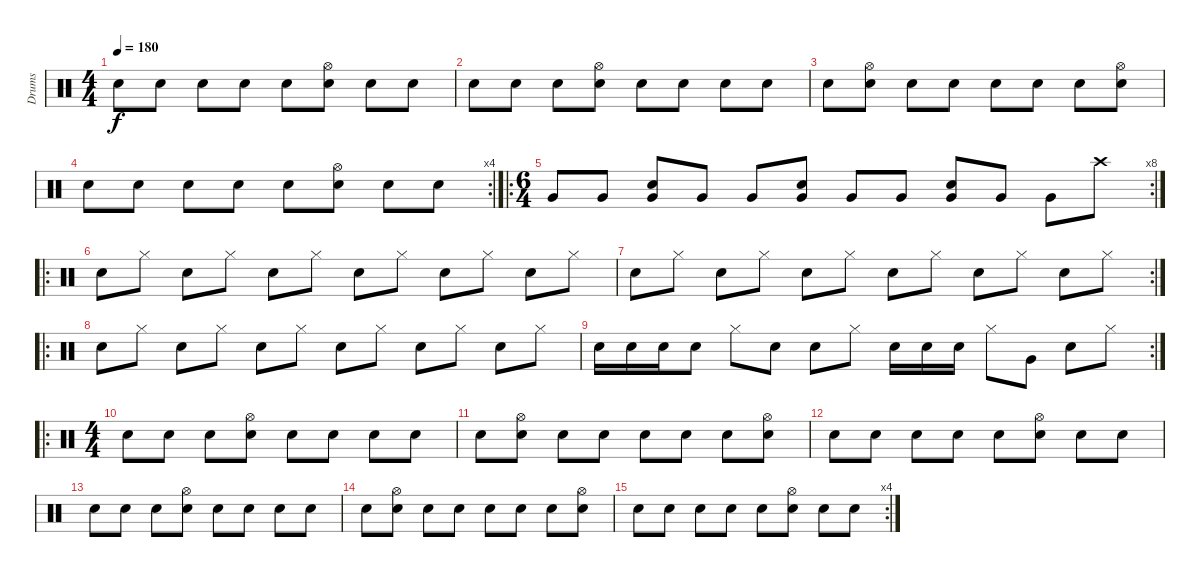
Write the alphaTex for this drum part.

\track ("Drums" "Drums") {instrument percussion}
\staff {score}
\articulation defaults
\ts (4 4)
\tempo 180
\clef neutral
\ks c "Electric Snare (hit)".8{dy f} "Electric Snare (hit)".8 "Electric Snare (hit)".8 "Electric Snare (hit)".8 "Electric Snare (hit)".8
("Hi-Hat (open)" "Electric Snare (hit)").8 "Electric Snare (hit)".8 "Electric Snare (hit)".8 |
"Electric Snare (hit)".8 "Electric Snare (hit)".8 "Electric Snare (hit)".8 ("Hi-Hat (open)" "Electric Snare (hit)").8 "Electric Snare (hit)".8 "Electric Snare (hit)".8 "Electric Snare (hit)".8 "Electric Snare (hit)".8 |
"Electric Snare (hit)".8 ("Hi-Hat (open)" "Electric Snare (hit)").8 "Electric Snare (hit)".8 "Electric Snare (hit)".8 "Electric Snare (hit)".8 "Electric Snare (hit)".8 "Electric Snare (hit)".8 ("Hi-Hat (open)" "Electric Snare (hit)").8 |
\rc 4 "Electric Snare (hit)".8 "Electric Snare (hit)".8 "Electric Snare (hit)".8 "Electric Snare (hit)".8 "Electric Snare (hit)".8
("Hi-Hat (open)" "Electric Snare (hit)").8 "Electric Snare (hit)".8 "Electric Snare (hit)".8 |
\ro
\rc 8
\ts (6 4)
"Very Low Tom (hit)".8 "Very Low Tom (hit)".8 ("Electric Snare (hit)" "Very Low Tom (hit)").8 "Very Low Tom (hit)".8 "Very Low Tom (hit)".8 ("Electric Snare (hit)" "Very Low Tom (hit)").8 "Very Low Tom (hit)".8 "Very Low Tom (hit)".8 ("Electric Snare (hit)" "Very Low Tom (hit)").8 "Very Low Tom (hit)".8 "Very Low Tom (hit)".8 "Crash high (hit)".8 |
\ro "Electric Snare (hit)".8 "Hi-Hat (closed)".8 "Electric Snare (hit)".8 "Hi-Hat (closed)".8 "Electric Snare (hit)".8 "Hi-Hat (closed)".8 "Electric Snare (hit)".8 "Hi-Hat (closed)".8 "Electric Snare (hit)".8 "Hi-Hat (closed)".8 "Electric Snare (hit)".8 "Hi-Hat (closed)".8
|
\rc 2 "Electric Snare (hit)".8 "Hi-Hat (closed)".8 "Electric Snare (hit)".8 "Hi-Hat (closed)".8 "Electric Snare (hit)".8 "Hi-Hat (closed)".8 "Electric Snare (hit)".8 "Hi-Hat (closed)".8 "Electric Snare (hit)".8 "Hi-Hat (closed)".8 "Electric Snare (hit)".8 "Hi-Hat (closed)".8
|
\ro "Electric Snare (hit)".8 "Hi-Hat (closed)".8 "Electric Snare (hit)".8 "Hi-Hat (closed)".8 "Electric Snare (hit)".8 "Hi-Hat (closed)".8 "Electric Snare (hit)".8 "Hi-Hat (closed)".8 "Electric Snare (hit)".8 "Hi-Hat (closed)".8 "Electric Snare (hit)".8 "Hi-Hat (closed)".8
|
\rc 2 "Electric Snare (hit)".16 "Electric Snare (hit)".16 "Electric Snare (hit)".16 "Electric Snare (hit)".8 "Hi-Hat (closed)".8 "Electric Snare (hit)".8 "Electric Snare (hit)".8 "Hi-Hat (closed)".8 "Electric Snare (hit)".16 "Electric Snare (hit)".16 "Electric Snare (hit)".16 "Hi-Hat (closed)".8 "Very Low Tom (hit)".8 "Electric Snare (hit)".8 "Hi-Hat (closed)".8
|
\ro
\ts (4 4)
"Electric Snare (hit)".8 "Electric Snare (hit)".8 "Electric Snare (hit)".8 ("Hi-Hat (open)" "Electric Snare (hit)").8 "Electric Snare (hit)".8 "Electric Snare (hit)".8 "Electric Snare (hit)".8 "Electric Snare (hit)".8 |
"Electric Snare (hit)".8 ("Hi-Hat (open)" "Electric Snare (hit)").8 "Electric Snare (hit)".8 "Electric Snare (hit)".8 "Electric Snare (hit)".8 "Electric Snare (hit)".8 "Electric Snare (hit)".8 ("Hi-Hat (open)" "Electric Snare (hit)").8 |
"Electric Snare (hit)".8 "Electric Snare (hit)".8 "Electric Snare (hit)".8 "Electric Snare (hit)".8 "Electric Snare (hit)".8 ("Hi-Hat (open)" "Electric Snare (hit)").8 "Electric Snare (hit)".8 "Electric Snare (hit)".8 |
"Electric Snare (hit)".8 "Electric Snare (hit)".8 "Electric Snare (hit)".8 ("Hi-Hat (open)" "Electric Snare (hit)").8 "Electric Snare (hit)".8 "Electric Snare (hit)".8 "Electric Snare (hit)".8 "Electric Snare (hit)".8 |
"Electric Snare (hit)".8 ("Hi-Hat (open)" "Electric Snare (hit)").8 "Electric Snare (hit)".8 "Electric Snare (hit)".8 "Electric Snare (hit)".8 "Electric Snare (hit)".8 "Electric Snare (hit)".8 ("Hi-Hat (open)" "Electric Snare (hit)").8 |
\rc 4 "Electric Snare (hit)".8 "Electric Snare (hit)".8 "Electric Snare (hit)".8 "Electric Snare (hit)".8 "Electric Snare (hit)".8
("Hi-Hat (open)" "Electric Snare (hit)").8 "Electric Snare (hit)".8 "Electric Snare (hit)".8
